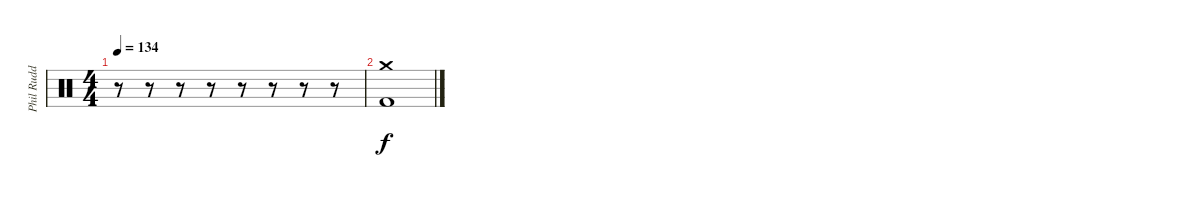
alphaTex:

\track ("Phil Rudd" "Phil Rudd") {instrument percussion}
\staff {score}
\articulation defaults
\ts (4 4)
\tempo 134
\clef neutral
\ks c
r.8{dy f} r.8 r.8 r.8 r.8 r.8 r.8 r.8 |
("Crash medium (hit)" "Kick (hit) 2").1
